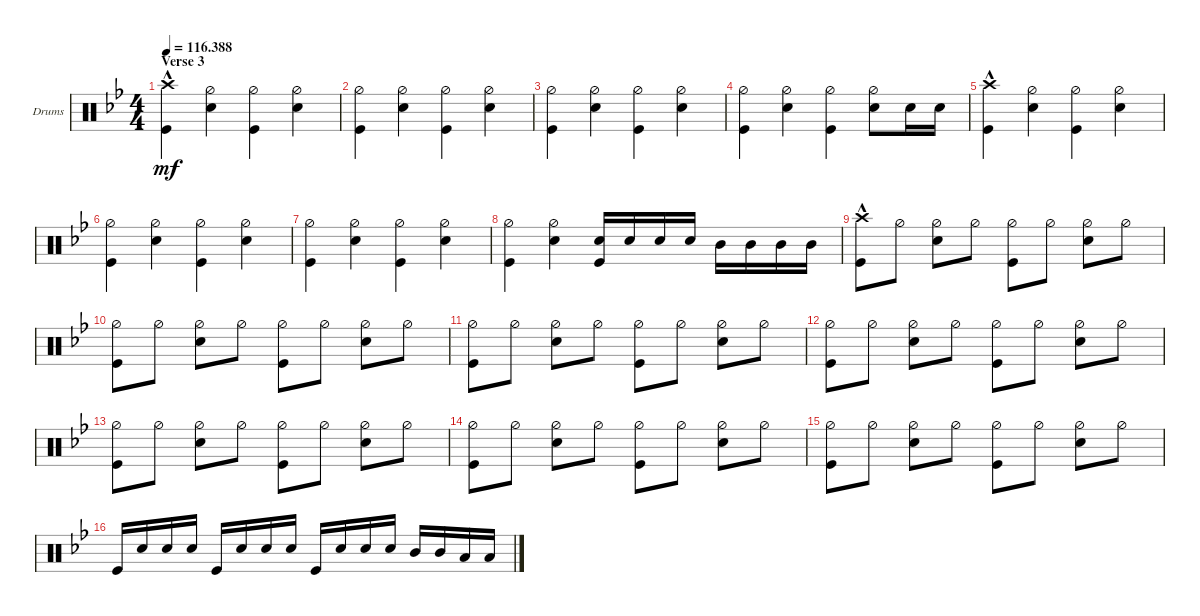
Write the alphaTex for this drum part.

\bracketExtendMode groupsimilarinstruments
\firstSystemTrackNameOrientation horizontal
\otherSystemsTrackNameOrientation horizontal
\track ("Drumkit" "Drums") {instrument percussion}
\staff {score}
\articulation defaults
\ts (4 4)
\section ("" "Verse 3")
\tempo
116.388
\accidentals auto
\clef neutral
\ottava regular
\simile none
\ks gminor
("Kick (hit)" "Crash high (hit)"{hac}).4{dy mf} ("Hi-Hat (half)" "Snare (hit) 2").4 ("Hi-Hat (half)" "Kick (hit)").4 ("Hi-Hat (half)" "Snare (hit) 2").4 |
("Hi-Hat (half)" "Kick (hit)").4 ("Hi-Hat (half)" "Snare (hit) 2").4 ("Hi-Hat (half)" "Kick (hit)").4 ("Hi-Hat (half)" "Snare (hit) 2").4 |
("Hi-Hat (half)" "Kick (hit)").4 ("Hi-Hat (half)" "Snare (hit) 2").4 ("Hi-Hat (half)" "Kick (hit)").4 ("Hi-Hat (half)" "Snare (hit) 2").4 |
("Hi-Hat (half)" "Kick (hit)").4 ("Hi-Hat (half)" "Snare (hit) 2").4 ("Hi-Hat (half)" "Kick (hit)").4 ("Hi-Hat (half)" "Snare (hit) 2").8 "Snare (hit) 2".16 "Snare (hit) 2".16 |
("Kick (hit)" "Crash high (hit)"{hac}).4 ("Hi-Hat (half)" "Snare (hit) 2").4 ("Hi-Hat (half)" "Kick (hit)").4 ("Hi-Hat (half)" "Snare (hit) 2").4 |
("Hi-Hat (half)" "Kick (hit)").4 ("Hi-Hat (half)" "Snare (hit) 2").4 ("Hi-Hat (half)" "Kick (hit)").4 ("Hi-Hat (half)" "Snare (hit) 2").4 |
("Hi-Hat (half)" "Kick (hit)").4 ("Hi-Hat (half)" "Snare (hit) 2").4 ("Hi-Hat (half)" "Kick (hit)").4 ("Hi-Hat (half)" "Snare (hit) 2").4 |
("Hi-Hat (half)" "Kick (hit)").4 ("Hi-Hat (half)" "Snare (hit) 2").4 ("Snare (hit) 2" "Kick (hit)").16 "Snare (hit) 2".16 "Snare (hit) 2".16 "Snare (hit) 2".16 "Mid Tom (hit)".16 "Mid Tom (hit)".16 "Mid Tom (hit)".16 "Mid Tom (hit)".16 |
("Kick (hit)" "Crash high (hit)"{hac}).8 "Hi-Hat (half)".8 ("Hi-Hat (half)" "Snare (hit) 2").8 "Hi-Hat (half)".8 ("Hi-Hat (half)" "Kick (hit)").8 "Hi-Hat (half)".8 ("Hi-Hat (half)" "Snare (hit) 2").8 "Hi-Hat (half)".8 |
("Hi-Hat (half)" "Kick (hit)").8 "Hi-Hat (half)".8 ("Hi-Hat (half)" "Snare (hit) 2").8 "Hi-Hat (half)".8 ("Hi-Hat (half)" "Kick (hit)").8 "Hi-Hat (half)".8 ("Hi-Hat (half)" "Snare (hit) 2").8 "Hi-Hat (half)".8 |
("Hi-Hat (half)" "Kick (hit)").8 "Hi-Hat (half)".8 ("Hi-Hat (half)" "Snare (hit) 2").8 "Hi-Hat (half)".8 ("Hi-Hat (half)" "Kick (hit)").8 "Hi-Hat (half)".8 ("Hi-Hat (half)" "Snare (hit) 2").8 "Hi-Hat (half)".8 |
("Hi-Hat (half)" "Kick (hit)").8 "Hi-Hat (half)".8 ("Hi-Hat (half)" "Snare (hit) 2").8 "Hi-Hat (half)".8 ("Hi-Hat (half)" "Kick (hit)").8 "Hi-Hat (half)".8 ("Hi-Hat (half)" "Snare (hit) 2").8 "Hi-Hat (half)".8 |
("Hi-Hat (half)" "Kick (hit)").8 "Hi-Hat (half)".8 ("Hi-Hat (half)" "Snare (hit) 2").8 "Hi-Hat (half)".8 ("Hi-Hat (half)" "Kick (hit)").8 "Hi-Hat (half)".8 ("Hi-Hat (half)" "Snare (hit) 2").8 "Hi-Hat (half)".8 |
("Hi-Hat (half)" "Kick (hit)").8 "Hi-Hat (half)".8 ("Hi-Hat (half)" "Snare (hit) 2").8 "Hi-Hat (half)".8 ("Hi-Hat (half)" "Kick (hit)").8 "Hi-Hat (half)".8 ("Hi-Hat (half)" "Snare (hit) 2").8 "Hi-Hat (half)".8 |
("Hi-Hat (half)" "Kick (hit)").8 "Hi-Hat (half)".8 ("Hi-Hat (half)" "Snare (hit) 2").8 "Hi-Hat (half)".8 ("Hi-Hat (half)" "Kick (hit)").8 "Hi-Hat (half)".8 ("Hi-Hat (half)" "Snare (hit) 2").8 "Hi-Hat (half)".8 |
"Kick (hit)".16 "Snare (hit) 2".16 "Snare (hit) 2".16 "Snare (hit) 2".16 "Kick (hit)".16 "Snare (hit) 2".16 "Snare (hit) 2".16 "Snare (hit) 2".16 "Kick (hit)".16 "Snare (hit) 2".16 "Snare (hit) 2".16 "Snare (hit) 2".16 "Mid Tom (hit)".16 "Mid Tom (hit)".16 "Low Tom (hit)".16 "Low Tom (hit)".16
